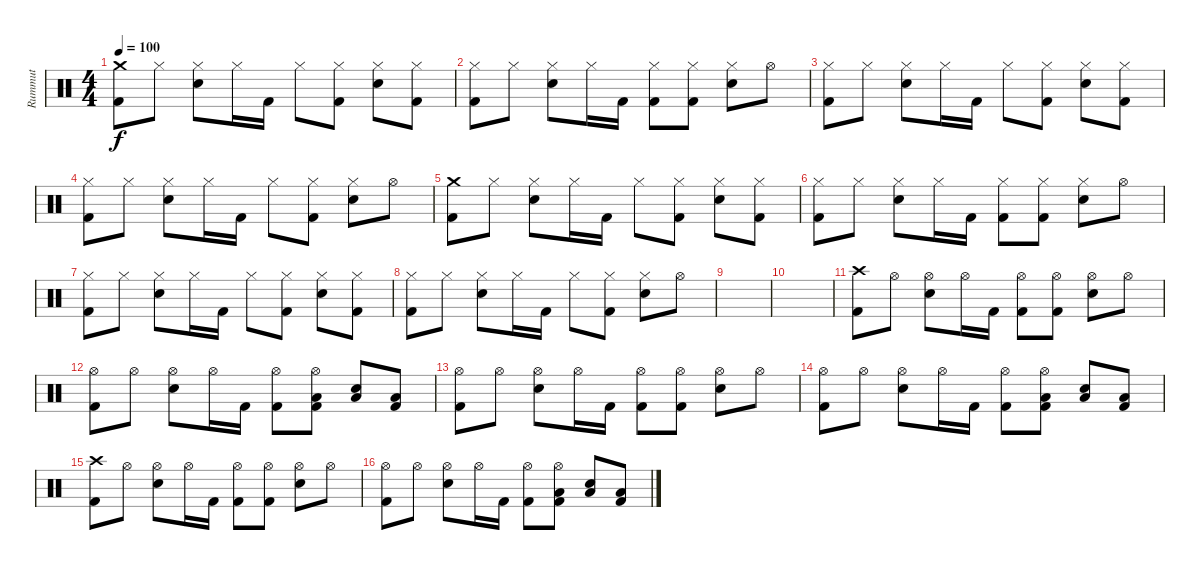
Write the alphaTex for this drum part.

\track ("Rummut" "Rummut") {instrument percussion}
\staff {score}
\articulation defaults
\ts (4 4)
\tempo 100
\clef neutral
\ks c
("Crash medium (hit)" "Kick (hit) 2").8{dy f} "Hi-Hat (closed)".8 ("Hi-Hat (closed)" "Snare (hit) 2").8 "Hi-Hat (closed)".16 "Kick (hit) 2".16 "Hi-Hat (closed)".8 ("Hi-Hat (closed)" "Kick (hit) 2").8 ("Hi-Hat (closed)" "Snare (hit) 2").8 ("Hi-Hat (closed)" "Kick (hit) 2").8 |
("Hi-Hat (closed)" "Kick (hit) 2").8 "Hi-Hat (closed)".8 ("Hi-Hat (closed)" "Snare (hit) 2").8 "Hi-Hat (closed)".16 "Kick (hit) 2".16 ("Hi-Hat (closed)" "Kick (hit) 2").8 ("Hi-Hat (closed)" "Kick (hit) 2").8 ("Hi-Hat (closed)" "Snare (hit) 2").8 "Hi-Hat (open)".8 |
("Hi-Hat (closed)" "Kick (hit) 2").8 "Hi-Hat (closed)".8 ("Hi-Hat (closed)" "Snare (hit) 2").8 "Hi-Hat (closed)".16 "Kick (hit) 2".16 "Hi-Hat (closed)".8 ("Hi-Hat (closed)" "Kick (hit) 2").8 ("Hi-Hat (closed)" "Snare (hit) 2").8 ("Hi-Hat (closed)" "Kick (hit) 2").8 |
("Hi-Hat (closed)" "Kick (hit) 2").8 "Hi-Hat (closed)".8 ("Hi-Hat (closed)" "Snare (hit) 2").8 "Hi-Hat (closed)".16 "Kick (hit) 2".16 "Hi-Hat (closed)".8 ("Hi-Hat (closed)" "Kick (hit) 2").8 ("Hi-Hat (closed)" "Snare (hit) 2").8 "Hi-Hat (open)".8 |
("Crash medium (hit)" "Kick (hit) 2").8 "Hi-Hat (closed)".8 ("Hi-Hat (closed)" "Snare (hit) 2").8 "Hi-Hat (closed)".16 "Kick (hit) 2".16 "Hi-Hat (closed)".8 ("Hi-Hat (closed)" "Kick (hit) 2").8 ("Hi-Hat (closed)" "Snare (hit) 2").8 ("Hi-Hat (closed)" "Kick (hit) 2").8 |
("Hi-Hat (closed)" "Kick (hit) 2").8 "Hi-Hat (closed)".8 ("Hi-Hat (closed)" "Snare (hit) 2").8 "Hi-Hat (closed)".16 "Kick (hit) 2".16 ("Hi-Hat (closed)" "Kick (hit) 2").8 ("Hi-Hat (closed)" "Kick (hit) 2").8 ("Hi-Hat (closed)" "Snare (hit) 2").8 "Hi-Hat (open)".8 |
("Hi-Hat (closed)" "Kick (hit) 2").8 "Hi-Hat (closed)".8 ("Hi-Hat (closed)" "Snare (hit) 2").8 "Hi-Hat (closed)".16 "Kick (hit) 2".16 "Hi-Hat (closed)".8 ("Hi-Hat (closed)" "Kick (hit) 2").8 ("Hi-Hat (closed)" "Snare (hit) 2").8 ("Hi-Hat (closed)" "Kick (hit) 2").8 |
("Hi-Hat (closed)" "Kick (hit) 2").8 "Hi-Hat (closed)".8 ("Hi-Hat (closed)" "Snare (hit) 2").8 "Hi-Hat (closed)".16 "Kick (hit) 2".16 "Hi-Hat (closed)".8 ("Hi-Hat (closed)" "Kick (hit) 2").8 ("Hi-Hat (closed)" "Snare (hit) 2").8 "Hi-Hat (open)".8 |
|
|
("Crash high (hit)" "Kick (hit) 2").8 "Hi-Hat (open)".8 ("Hi-Hat (open)" "Snare (hit) 2").8 "Hi-Hat (open)".16 "Kick (hit) 2".16 ("Hi-Hat (open)" "Kick (hit) 2").8 ("Hi-Hat (open)" "Kick (hit) 2").8 ("Hi-Hat (open)" "Snare (hit) 2").8 "Hi-Hat (open)".8 |
("Hi-Hat (open)" "Kick (hit) 2").8 "Hi-Hat (open)".8 ("Hi-Hat (open)" "Snare (hit) 2").8 "Hi-Hat (open)".16 "Kick (hit) 2".16 ("Hi-Hat (open)" "Kick (hit) 2").8 ("Hi-Hat (open)" "Low Floor Tom (hit)" "Kick (hit) 2").8 ("Snare (hit) 2" "Low Floor Tom (hit)").8 ("Low Floor Tom (hit)" "Kick (hit) 2").8 |
("Hi-Hat (open)" "Kick (hit) 2").8 "Hi-Hat (open)".8 ("Hi-Hat (open)" "Snare (hit) 2").8 "Hi-Hat (open)".16 "Kick (hit) 2".16 ("Hi-Hat (open)" "Kick (hit) 2").8 ("Hi-Hat (open)" "Kick (hit) 2").8 ("Hi-Hat (open)" "Snare (hit) 2").8 "Hi-Hat (open)".8 |
("Hi-Hat (open)" "Kick (hit) 2").8 "Hi-Hat (open)".8 ("Hi-Hat (open)" "Snare (hit) 2").8 "Hi-Hat (open)".16 "Kick (hit) 2".16 ("Hi-Hat (open)" "Kick (hit) 2").8 ("Hi-Hat (open)" "Low Floor Tom (hit)" "Kick (hit) 2").8 ("Snare (hit) 2" "Low Floor Tom (hit)").8 ("Low Floor Tom (hit)" "Kick (hit) 2").8 |
("Crash high (hit)" "Kick (hit) 2").8 "Hi-Hat (open)".8 ("Hi-Hat (open)" "Snare (hit) 2").8 "Hi-Hat (open)".16 "Kick (hit) 2".16 ("Hi-Hat (open)" "Kick (hit) 2").8 ("Hi-Hat (open)" "Kick (hit) 2").8 ("Hi-Hat (open)" "Snare (hit) 2").8 "Hi-Hat (open)".8 |
("Hi-Hat (open)" "Kick (hit) 2").8 "Hi-Hat (open)".8 ("Hi-Hat (open)" "Snare (hit) 2").8 "Hi-Hat (open)".16 "Kick (hit) 2".16 ("Hi-Hat (open)" "Kick (hit) 2").8 ("Hi-Hat (open)" "Low Floor Tom (hit)" "Kick (hit) 2").8 ("Snare (hit) 2" "Low Floor Tom (hit)").8 ("Low Floor Tom (hit)" "Kick (hit) 2").8
